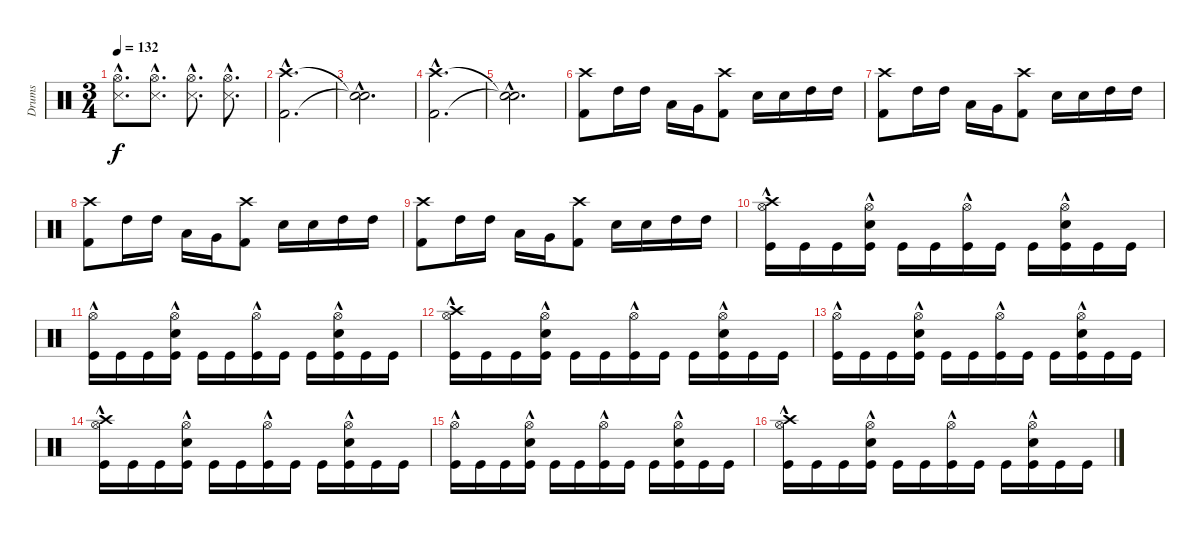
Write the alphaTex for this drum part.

\track ("Drums" "Drums") {instrument percussion}
\staff {score}
\articulation defaults
\ts (3 4)
\tempo 132
\clef neutral
\ks c
("Hi-Hat (open)"{hac} "Metronome (hit)"{hac}).8{d dy f} ("Hi-Hat (open)"{hac} "Metronome (hit)"{hac}).8{d} ("Hi-Hat (open)"{hac} "Metronome (hit)"{hac}).8{d} ("Hi-Hat (open)"{hac} "Metronome (hit)"{hac}).8{d} |
("Crash high (hit)"{hac} "Kick (hit) 2"{hac}).2{d} |
("Snare (hit)"{hac t} "Snare (hit)"{hac t}).2{d} |
("Crash high (hit)"{hac} "Kick (hit) 2"{hac}).2{d} |
("Snare (hit)"{hac t} "Snare (hit)"{hac t}).2{d} |
("Crash high (hit)" "Kick (hit) 2").8 "High Tom (hit)".16 "High Tom (hit)".16 "Low Tom (hit)".16 "Very Low Tom (hit)".16 ("Crash high (hit)" "Kick (hit) 2").8 "Snare (hit) 2".16 "Snare (hit) 2".16 "High Tom (hit)".16 "High Tom (hit)".16 |
("Crash high (hit)" "Kick (hit) 2").8 "High Tom (hit)".16 "High Tom (hit)".16 "Low Tom (hit)".16 "Very Low Tom (hit)".16 ("Crash high (hit)" "Kick (hit) 2").8 "Snare (hit) 2".16 "Snare (hit) 2".16 "High Tom (hit)".16 "High Tom (hit)".16 |
("Crash high (hit)" "Kick (hit) 2").8 "High Tom (hit)".16 "High Tom (hit)".16 "Low Tom (hit)".16 "Very Low Tom (hit)".16 ("Crash high (hit)" "Kick (hit) 2").8 "Snare (hit) 2".16 "Snare (hit) 2".16 "High Tom (hit)".16 "High Tom (hit)".16 |
("Crash high (hit)" "Kick (hit) 2").8 "High Tom (hit)".16 "High Tom (hit)".16 "Low Tom (hit)".16 "Very Low Tom (hit)".16 ("Crash high (hit)" "Kick (hit) 2").8 "Snare (hit) 2".16 "Snare (hit) 2".16 "High Tom (hit)".16 "High Tom (hit)".16 |
("Crash high (hit)" "Hi-Hat (open)"{hac} "Kick (hit)").16 "Kick (hit)".16 "Kick (hit)".16 ("Hi-Hat (open)"{hac} "Kick (hit)" "Electric Snare (hit)").16 "Kick (hit)".16 "Kick (hit)".16 ("Hi-Hat (open)"{hac} "Kick (hit)").16 "Kick (hit)".16 "Kick (hit)".16 ("Hi-Hat (open)"{hac} "Kick (hit)" "Electric Snare (hit)").16 "Kick (hit)".16 "Kick (hit)".16 |
("Hi-Hat (open)"{hac} "Kick (hit)").16 "Kick (hit)".16 "Kick (hit)".16 ("Hi-Hat (open)"{hac} "Kick (hit)" "Electric Snare (hit)").16 "Kick (hit)".16 "Kick (hit)".16 ("Hi-Hat (open)"{hac} "Kick (hit)").16 "Kick (hit)".16 "Kick (hit)".16 ("Hi-Hat (open)"{hac} "Kick (hit)" "Electric Snare (hit)").16 "Kick (hit)".16 "Kick (hit)".16 |
("Crash high (hit)" "Hi-Hat (open)"{hac} "Kick (hit)").16 "Kick (hit)".16 "Kick (hit)".16 ("Hi-Hat (open)"{hac} "Kick (hit)" "Electric Snare (hit)").16 "Kick (hit)".16 "Kick (hit)".16 ("Hi-Hat (open)"{hac} "Kick (hit)").16 "Kick (hit)".16 "Kick (hit)".16 ("Hi-Hat (open)"{hac} "Kick (hit)" "Electric Snare (hit)").16 "Kick (hit)".16 "Kick (hit)".16 |
("Hi-Hat (open)"{hac} "Kick (hit)").16 "Kick (hit)".16 "Kick (hit)".16 ("Hi-Hat (open)"{hac} "Kick (hit)" "Electric Snare (hit)").16 "Kick (hit)".16 "Kick (hit)".16 ("Hi-Hat (open)"{hac} "Kick (hit)").16 "Kick (hit)".16 "Kick (hit)".16 ("Hi-Hat (open)"{hac} "Kick (hit)" "Electric Snare (hit)").16 "Kick (hit)".16 "Kick (hit)".16 |
("Crash high (hit)" "Hi-Hat (open)"{hac} "Kick (hit)").16 "Kick (hit)".16 "Kick (hit)".16 ("Hi-Hat (open)"{hac} "Kick (hit)" "Electric Snare (hit)").16 "Kick (hit)".16 "Kick (hit)".16 ("Hi-Hat (open)"{hac} "Kick (hit)").16 "Kick (hit)".16 "Kick (hit)".16 ("Hi-Hat (open)"{hac} "Kick (hit)" "Electric Snare (hit)").16 "Kick (hit)".16 "Kick (hit)".16 |
("Hi-Hat (open)"{hac} "Kick (hit)").16 "Kick (hit)".16 "Kick (hit)".16 ("Hi-Hat (open)"{hac} "Kick (hit)" "Electric Snare (hit)").16 "Kick (hit)".16 "Kick (hit)".16 ("Hi-Hat (open)"{hac} "Kick (hit)").16 "Kick (hit)".16 "Kick (hit)".16 ("Hi-Hat (open)"{hac} "Kick (hit)" "Electric Snare (hit)").16 "Kick (hit)".16 "Kick (hit)".16 |
("Crash high (hit)" "Hi-Hat (open)"{hac} "Kick (hit)").16 "Kick (hit)".16 "Kick (hit)".16 ("Hi-Hat (open)"{hac} "Kick (hit)" "Electric Snare (hit)").16 "Kick (hit)".16 "Kick (hit)".16 ("Hi-Hat (open)"{hac} "Kick (hit)").16 "Kick (hit)".16 "Kick (hit)".16 ("Hi-Hat (open)"{hac} "Kick (hit)" "Electric Snare (hit)").16 "Kick (hit)".16 "Kick (hit)".16
